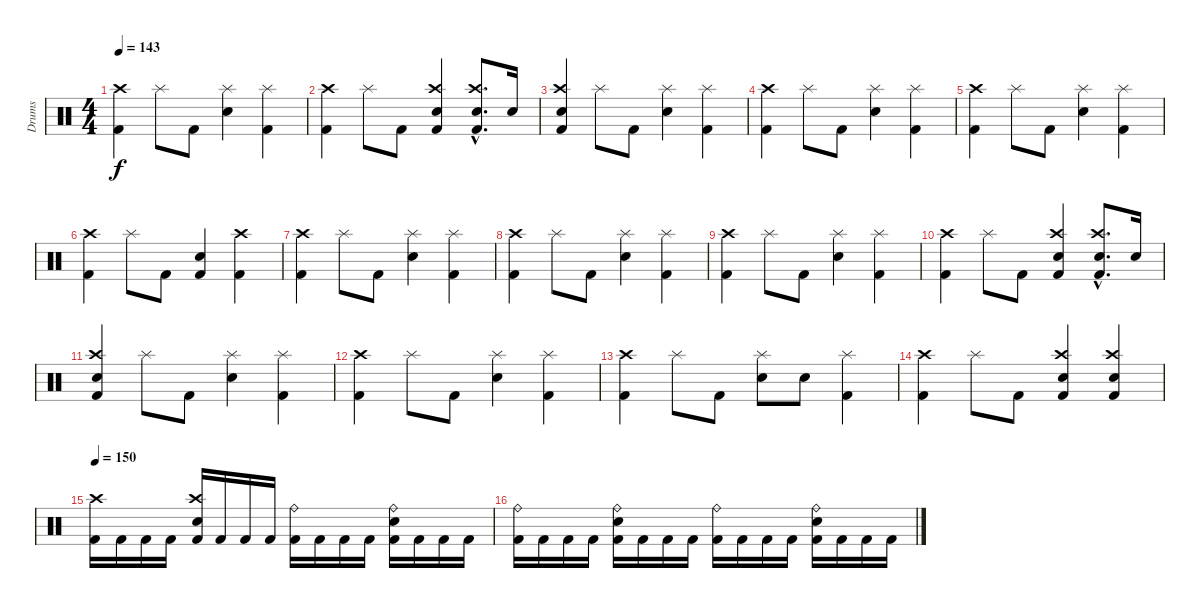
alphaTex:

\track ("Drums" "Drums") {instrument percussion}
\staff {score}
\articulation defaults
\ts (4 4)
\tempo 143
\clef neutral
\ks c
("Kick (hit) 2" "Crash high (hit)").4{dy f} "Splash (hit)".8 "Kick (hit) 2".8 ("Snare (hit) 2" "Splash (hit)").4 ("Kick (hit) 2" "Splash (hit)").4 |
("Kick (hit) 2" "Crash high (hit)").4 "Splash (hit)".8 "Kick (hit) 2".8 ("Kick (hit) 2" "Snare (hit) 2" "Crash high (hit)").4 ("Kick (hit) 2"{hac} "Snare (hit) 2"{hac} "Crash high (hit)"{hac}).8{d} "Snare (hit) 2".16 |
("Kick (hit) 2" "Snare (hit) 2" "Crash high (hit)").4 "Splash (hit)".8 "Kick (hit) 2".8 ("Snare (hit) 2" "Splash (hit)").4 ("Kick (hit) 2" "Splash (hit)").4 |
("Kick (hit) 2" "Crash high (hit)").4 "Splash (hit)".8 "Kick (hit) 2".8 ("Snare (hit) 2" "Splash (hit)").4 ("Kick (hit) 2" "Splash (hit)").4 |
("Kick (hit) 2" "Crash high (hit)").4 "Splash (hit)".8 "Kick (hit) 2".8 ("Snare (hit) 2" "Splash (hit)").4 ("Kick (hit) 2" "Splash (hit)").4 |
("Kick (hit) 2" "Crash high (hit)").4 "Splash (hit)".8 "Kick (hit) 2".8 ("Kick (hit) 2" "Snare (hit) 2").4 ("Kick (hit) 2" "Crash high (hit)").4 |
("Kick (hit) 2" "Crash high (hit)").4 "Splash (hit)".8 "Kick (hit) 2".8 ("Snare (hit) 2" "Splash (hit)").4 ("Kick (hit) 2" "Splash (hit)").4 |
("Kick (hit) 2" "Crash high (hit)").4 "Splash (hit)".8 "Kick (hit) 2".8 ("Snare (hit) 2" "Splash (hit)").4 ("Kick (hit) 2" "Splash (hit)").4 |
("Kick (hit) 2" "Crash high (hit)").4 "Splash (hit)".8 "Kick (hit) 2".8 ("Snare (hit) 2" "Splash (hit)").4 ("Kick (hit) 2" "Splash (hit)").4 |
("Kick (hit) 2" "Crash high (hit)").4 "Splash (hit)".8 "Kick (hit) 2".8 ("Kick (hit) 2" "Snare (hit) 2" "Crash high (hit)").4 ("Kick (hit) 2"{hac} "Snare (hit) 2"{hac} "Crash high (hit)"{hac}).8{d} "Snare (hit) 2".16 |
("Kick (hit) 2" "Snare (hit) 2" "Crash high (hit)").4 "Splash (hit)".8 "Kick (hit) 2".8 ("Snare (hit) 2" "Splash (hit)").4 ("Kick (hit) 2" "Splash (hit)").4 |
("Kick (hit) 2" "Crash high (hit)").4 "Splash (hit)".8 "Kick (hit) 2".8 ("Snare (hit) 2" "Splash (hit)").4 ("Kick (hit) 2" "Splash (hit)").4 |
("Kick (hit) 2" "Crash high (hit)").4 "Splash (hit)".8 "Kick (hit) 2".8 ("Snare (hit) 2" "Splash (hit)").8 "Snare (hit) 2".8 ("Kick (hit) 2" "Splash (hit)").4 |
("Kick (hit) 2" "Crash high (hit)").4 "Splash (hit)".8 "Kick (hit) 2".8 ("Kick (hit) 2" "Snare (hit) 2" "Crash high (hit)").4 ("Kick (hit) 2" "Snare (hit) 2" "Crash high (hit)").4 |
\tempo 150
("Kick (hit) 2" "Crash high (hit)").16 "Kick (hit) 2".16 "Kick (hit) 2".16 "Kick (hit) 2".16 ("Kick (hit) 2" "Snare (hit) 2" "Crash high (hit)").16 "Kick (hit) 2".16 "Kick (hit) 2".16 "Kick (hit) 2".16 ("Kick (hit) 2" "Ride (bell)").16 "Kick (hit) 2".16 "Kick (hit) 2".16 "Kick (hit) 2".16 ("Kick (hit) 2" "Snare (hit) 2" "Ride (bell)").16 "Kick (hit) 2".16 "Kick (hit) 2".16 "Kick (hit) 2".16 |
("Kick (hit) 2" "Ride (bell)").16 "Kick (hit) 2".16 "Kick (hit) 2".16 "Kick (hit) 2".16 ("Kick (hit) 2" "Snare (hit) 2" "Ride (bell)").16 "Kick (hit) 2".16 "Kick (hit) 2".16 "Kick (hit) 2".16 ("Kick (hit) 2" "Ride (bell)").16 "Kick (hit) 2".16 "Kick (hit) 2".16 "Kick (hit) 2".16 ("Kick (hit) 2" "Snare (hit) 2" "Ride (bell)").16 "Kick (hit) 2".16 "Kick (hit) 2".16 "Kick (hit) 2".16
